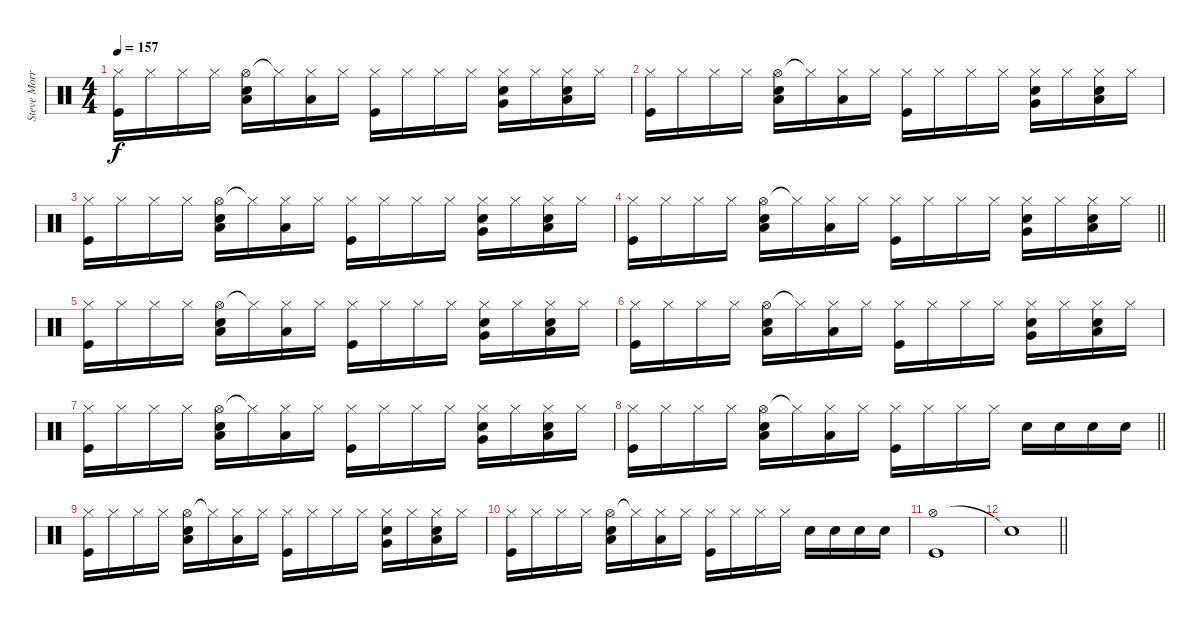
\track ("Steve Morris" "Steve Morr") {instrument percussion}
\staff {score}
\articulation defaults
\ts (4 4)
\tempo 157
\clef neutral
\ks c
("Hi-Hat (closed)" "Kick (hit)").16{dy f} "Hi-Hat (closed)".16 "Hi-Hat (closed)".16 "Hi-Hat (closed)".16 ("Hi-Hat (open)" "Low Tom (hit)" "Electric Snare (hit)").16 "Hi-Hat (closed)"{t}.16 ("Hi-Hat (closed)" "Low Tom (hit)").16 "Hi-Hat (closed)".16 ("Hi-Hat (closed)" "Kick (hit)").16 "Hi-Hat (closed)".16 "Hi-Hat (closed)".16 "Hi-Hat (closed)".16 ("Hi-Hat (closed)" "Very Low Tom (hit)" "Electric Snare (hit)").16 "Hi-Hat (closed)".16 ("Hi-Hat (closed)" "Low Floor Tom (hit)" "Electric Snare (hit)").16 "Hi-Hat (closed)".16 |
("Hi-Hat (closed)" "Kick (hit)").16 "Hi-Hat (closed)".16 "Hi-Hat (closed)".16 "Hi-Hat (closed)".16 ("Hi-Hat (open)" "Low Tom (hit)" "Electric Snare (hit)").16 "Hi-Hat (closed)"{t}.16 ("Hi-Hat (closed)" "Low Tom (hit)").16 "Hi-Hat (closed)".16 ("Hi-Hat (closed)" "Kick (hit)").16 "Hi-Hat (closed)".16 "Hi-Hat (closed)".16 "Hi-Hat (closed)".16 ("Hi-Hat (closed)" "Very Low Tom (hit)" "Electric Snare (hit)").16 "Hi-Hat (closed)".16 ("Hi-Hat (closed)" "Low Floor Tom (hit)" "Electric Snare (hit)").16 "Hi-Hat (closed)".16 |
("Hi-Hat (closed)" "Kick (hit)").16 "Hi-Hat (closed)".16 "Hi-Hat (closed)".16 "Hi-Hat (closed)".16 ("Hi-Hat (open)" "Low Tom (hit)" "Electric Snare (hit)").16 "Hi-Hat (closed)"{t}.16 ("Hi-Hat (closed)" "Low Tom (hit)").16 "Hi-Hat (closed)".16 ("Hi-Hat (closed)" "Kick (hit)").16 "Hi-Hat (closed)".16 "Hi-Hat (closed)".16 "Hi-Hat (closed)".16 ("Hi-Hat (closed)" "Very Low Tom (hit)" "Electric Snare (hit)").16 "Hi-Hat (closed)".16 ("Hi-Hat (closed)" "Low Floor Tom (hit)" "Electric Snare (hit)").16 "Hi-Hat (closed)".16 |
\barLineRight lightlight
("Hi-Hat (closed)" "Kick (hit)").16 "Hi-Hat (closed)".16 "Hi-Hat (closed)".16 "Hi-Hat (closed)".16 ("Hi-Hat (open)" "Low Tom (hit)" "Electric Snare (hit)").16 "Hi-Hat (closed)"{t}.16 ("Hi-Hat (closed)" "Low Tom (hit)").16 "Hi-Hat (closed)".16 ("Hi-Hat (closed)" "Kick (hit)").16 "Hi-Hat (closed)".16 "Hi-Hat (closed)".16 "Hi-Hat (closed)".16 ("Hi-Hat (closed)" "Very Low Tom (hit)" "Electric Snare (hit)").16 "Hi-Hat (closed)".16 ("Hi-Hat (closed)" "Low Floor Tom (hit)" "Electric Snare (hit)").16 "Hi-Hat (closed)".16 |
("Hi-Hat (closed)" "Kick (hit)").16 "Hi-Hat (closed)".16 "Hi-Hat (closed)".16 "Hi-Hat (closed)".16 ("Hi-Hat (open)" "Low Tom (hit)" "Electric Snare (hit)").16 "Hi-Hat (closed)"{t}.16 ("Hi-Hat (closed)" "Low Tom (hit)").16 "Hi-Hat (closed)".16 ("Hi-Hat (closed)" "Kick (hit)").16 "Hi-Hat (closed)".16 "Hi-Hat (closed)".16 "Hi-Hat (closed)".16 ("Hi-Hat (closed)" "Very Low Tom (hit)" "Electric Snare (hit)").16 "Hi-Hat (closed)".16 ("Hi-Hat (closed)" "Low Floor Tom (hit)" "Electric Snare (hit)").16 "Hi-Hat (closed)".16 |
("Hi-Hat (closed)" "Kick (hit)").16 "Hi-Hat (closed)".16 "Hi-Hat (closed)".16 "Hi-Hat (closed)".16 ("Hi-Hat (open)" "Low Tom (hit)" "Electric Snare (hit)").16 "Hi-Hat (closed)"{t}.16 ("Hi-Hat (closed)" "Low Tom (hit)").16 "Hi-Hat (closed)".16 ("Hi-Hat (closed)" "Kick (hit)").16 "Hi-Hat (closed)".16 "Hi-Hat (closed)".16 "Hi-Hat (closed)".16 ("Hi-Hat (closed)" "Very Low Tom (hit)" "Electric Snare (hit)").16 "Hi-Hat (closed)".16 ("Hi-Hat (closed)" "Low Floor Tom (hit)" "Electric Snare (hit)").16 "Hi-Hat (closed)".16 |
("Hi-Hat (closed)" "Kick (hit)").16 "Hi-Hat (closed)".16 "Hi-Hat (closed)".16 "Hi-Hat (closed)".16 ("Hi-Hat (open)" "Low Tom (hit)" "Electric Snare (hit)").16 "Hi-Hat (closed)"{t}.16 ("Hi-Hat (closed)" "Low Tom (hit)").16 "Hi-Hat (closed)".16 ("Hi-Hat (closed)" "Kick (hit)").16 "Hi-Hat (closed)".16 "Hi-Hat (closed)".16 "Hi-Hat (closed)".16 ("Hi-Hat (closed)" "Very Low Tom (hit)" "Electric Snare (hit)").16 "Hi-Hat (closed)".16 ("Hi-Hat (closed)" "Low Floor Tom (hit)" "Electric Snare (hit)").16 "Hi-Hat (closed)".16 |
\barLineRight lightlight
("Hi-Hat (closed)" "Kick (hit)").16 "Hi-Hat (closed)".16 "Hi-Hat (closed)".16 "Hi-Hat (closed)".16 ("Hi-Hat (open)" "Low Tom (hit)" "Electric Snare (hit)").16 "Hi-Hat (closed)"{t}.16 ("Hi-Hat (closed)" "Low Tom (hit)").16 "Hi-Hat (closed)".16 ("Hi-Hat (closed)" "Kick (hit)").16 "Hi-Hat (closed)".16 "Hi-Hat (closed)".16 "Hi-Hat (closed)".16 "Electric Snare (hit)".16 "Electric Snare (hit)".16 "Electric Snare (hit)".16 "Electric Snare (hit)".16 |
("Hi-Hat (closed)" "Kick (hit)").16 "Hi-Hat (closed)".16 "Hi-Hat (closed)".16 "Hi-Hat (closed)".16 ("Hi-Hat (open)" "Low Tom (hit)" "Electric Snare (hit)").16 "Hi-Hat (closed)"{t}.16 ("Hi-Hat (closed)" "Low Tom (hit)").16 "Hi-Hat (closed)".16 ("Hi-Hat (closed)" "Kick (hit)").16 "Hi-Hat (closed)".16 "Hi-Hat (closed)".16 "Hi-Hat (closed)".16 ("Hi-Hat (closed)" "Very Low Tom (hit)" "Electric Snare (hit)").16 "Hi-Hat (closed)".16 ("Hi-Hat (closed)" "Low Floor Tom (hit)" "Electric Snare (hit)").16 "Hi-Hat (closed)".16 |
("Hi-Hat (closed)" "Kick (hit)").16 "Hi-Hat (closed)".16 "Hi-Hat (closed)".16 "Hi-Hat (closed)".16 ("Hi-Hat (open)" "Low Tom (hit)" "Electric Snare (hit)").16 "Hi-Hat (closed)"{t}.16 ("Hi-Hat (closed)" "Low Tom (hit)").16 "Hi-Hat (closed)".16 ("Hi-Hat (closed)" "Kick (hit)").16 "Hi-Hat (closed)".16 "Hi-Hat (closed)".16 "Hi-Hat (closed)".16 "Electric Snare (hit)".16 "Electric Snare (hit)".16 "Electric Snare (hit)".16 "Electric Snare (hit)".16 |
("Hi-Hat (open)" "Kick (hit)").1 |
\barLineRight lightlight "Snare (hit)"{t}.1
